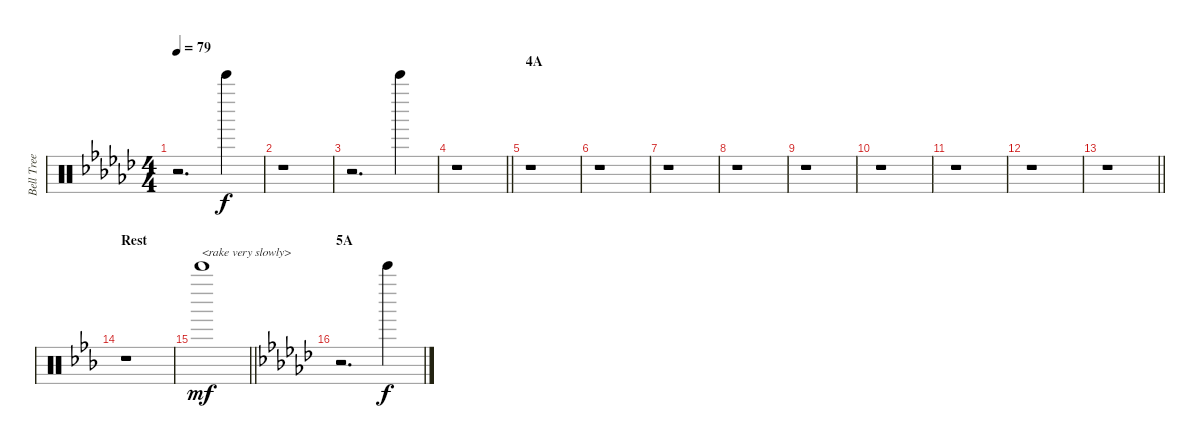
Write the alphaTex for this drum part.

\track ("Bell Tree" "Bell Tree") {instrument percussion}
\staff {score}
\articulation defaults
\ts (4 4)
\tempo 79
\clef neutral
\ks gb
r.2{d dy f} "Bell Tree (hit)".4 |
r.1 |
r.2{d} "Bell Tree (hit)".4 |
\barLineRight lightlight
r.1 |
\section ("" "4A")
r.1 |
r.1 |
r.1 |
r.1 |
r.1 |
r.1 |
r.1 |
r.1 |
\barLineRight lightlight
r.1 |
\section ("" "Rest")
\ks eb
r.1 |
\barLineRight lightlight "Bell Tree (hit)".1{txt "<rake very slowly>" dy mf}
|
\section ("" "5A")
\ks gb
r.2{d} "Bell Tree (hit)".4{dy f}
